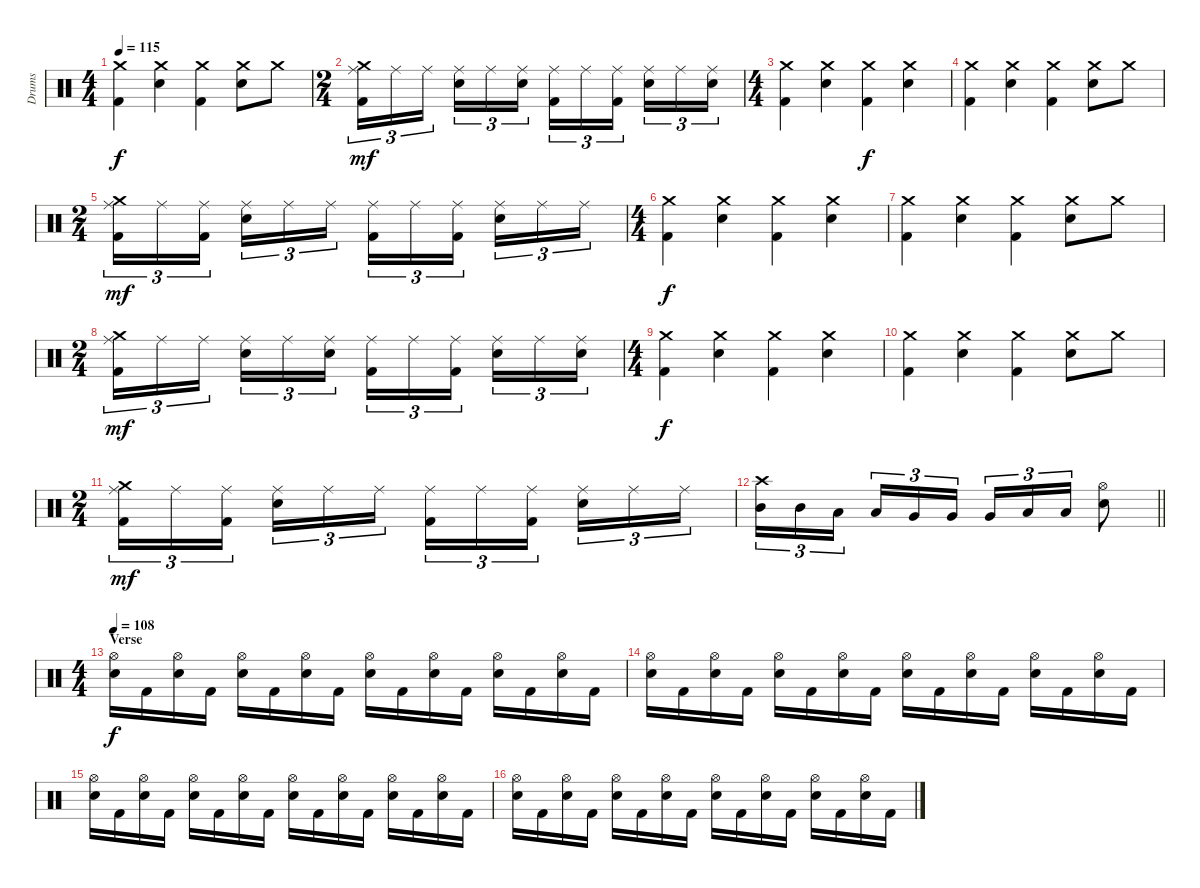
\track ("Drums" "Drums") {instrument percussion}
\staff {score}
\articulation defaults
\ts (4 4)
\tempo 115
\clef neutral
\ks c
("Crash medium (hit)" "Kick (hit) 2").4{dy f} ("Crash medium (hit)" "Electric Snare (hit)").4 ("Crash medium (hit)" "Kick (hit) 2").4 ("Crash medium (hit)" "Electric Snare (hit)").8 "Crash medium (hit)".8 |
\ts (2 4)
("Crash medium (hit)" "Ride (middle)" "Kick (hit) 2").16{tu (3 2) dy mf} "Ride (middle)".16{tu (3 2)} "Ride (middle)".16{tu (3 2) beam splitsecondary} ("Ride (middle)" "Electric Snare (hit)").16{tu (3 2)} "Ride (middle)".16{tu (3 2)} ("Ride (middle)" "Electric Snare (hit)").16{tu (3 2)} ("Ride (middle)" "Kick (hit) 2").16{tu (3 2)} "Ride (middle)".16{tu (3 2)} ("Ride (middle)" "Kick (hit) 2").16{tu (3 2) beam splitsecondary} ("Ride (middle)" "Electric Snare (hit)").16{tu (3 2)} "Ride (middle)".16{tu (3 2)} ("Ride (middle)" "Electric Snare (hit)").16{tu (3 2)} |
\ts (4 4)
("Crash medium (hit)" "Kick (hit) 2").4 ("Crash medium (hit)" "Electric Snare (hit)").4 ("Crash medium (hit)" "Kick (hit) 2").4{dy f} ("Crash medium (hit)" "Electric Snare (hit)").4 |
("Crash medium (hit)" "Kick (hit) 2").4 ("Crash medium (hit)" "Electric Snare (hit)").4 ("Crash medium (hit)" "Kick (hit) 2").4 ("Crash medium (hit)" "Electric Snare (hit)").8 "Crash medium (hit)".8 |
\ts (2 4)
("Crash medium (hit)" "Ride (middle)" "Kick (hit) 2").16{tu (3 2) dy mf} "Ride (middle)".16{tu (3 2)} ("Ride (middle)" "Kick (hit) 2").16{tu (3 2) beam splitsecondary} ("Ride (middle)" "Electric Snare (hit)").16{tu (3 2)} "Ride (middle)".16{tu (3 2)} "Ride (middle)".16{tu (3 2)} ("Ride (middle)" "Kick (hit) 2").16{tu (3 2)} "Ride (middle)".16{tu (3 2)} ("Ride (middle)" "Kick (hit) 2").16{tu (3 2) beam splitsecondary} ("Ride (middle)" "Electric Snare (hit)").16{tu (3 2)} "Ride (middle)".16{tu (3 2)} "Ride (middle)".16{tu (3 2)} |
\ts (4 4)
("Crash medium (hit)" "Kick (hit) 2").4{dy f} ("Crash medium (hit)" "Electric Snare (hit)").4 ("Crash medium (hit)" "Kick (hit) 2").4 ("Crash medium (hit)" "Electric Snare (hit)").4 |
("Crash medium (hit)" "Kick (hit) 2").4 ("Crash medium (hit)" "Electric Snare (hit)").4 ("Crash medium (hit)" "Kick (hit) 2").4 ("Crash medium (hit)" "Electric Snare (hit)").8 "Crash medium (hit)".8 |
\ts (2 4)
("Crash medium (hit)" "Ride (middle)" "Kick (hit) 2").16{tu (3 2) dy mf} "Ride (middle)".16{tu (3 2)} "Ride (middle)".16{tu (3 2) beam splitsecondary} ("Ride (middle)" "Electric Snare (hit)").16{tu (3 2)} "Ride (middle)".16{tu (3 2)} ("Ride (middle)" "Electric Snare (hit)").16{tu (3 2)} ("Ride (middle)" "Kick (hit) 2").16{tu (3 2)} "Ride (middle)".16{tu (3 2)} ("Ride (middle)" "Kick (hit) 2").16{tu (3 2) beam splitsecondary} ("Ride (middle)" "Electric Snare (hit)").16{tu (3 2)} "Ride (middle)".16{tu (3 2)} ("Ride (middle)" "Electric Snare (hit)").16{tu (3 2)} |
\ts (4 4)
("Crash medium (hit)" "Kick (hit) 2").4{dy f} ("Crash medium (hit)" "Electric Snare (hit)").4 ("Crash medium (hit)" "Kick (hit) 2").4 ("Crash medium (hit)" "Electric Snare (hit)").4 |
("Crash medium (hit)" "Kick (hit) 2").4 ("Crash medium (hit)" "Electric Snare (hit)").4 ("Crash medium (hit)" "Kick (hit) 2").4 ("Crash medium (hit)" "Electric Snare (hit)").8 "Crash medium (hit)".8 |
\ts (2 4)
("Crash medium (hit)" "Ride (middle)" "Kick (hit) 2").16{tu (3 2) dy mf} "Ride (middle)".16{tu (3 2)} ("Ride (middle)" "Kick (hit) 2").16{tu (3 2) beam splitsecondary} ("Ride (middle)" "Electric Snare (hit)").16{tu (3 2)} "Ride (middle)".16{tu (3 2)} "Ride (middle)".16{tu (3 2)} ("Ride (middle)" "Kick (hit) 2").16{tu (3 2)} "Ride (middle)".16{tu (3 2)} ("Ride (middle)" "Kick (hit) 2").16{tu (3 2) beam splitsecondary} ("Ride (middle)" "Electric Snare (hit)").16{tu (3 2)} "Ride (middle)".16{tu (3 2)} "Ride (middle)".16{tu (3 2)} |
\barLineRight lightlight
("Crash high (hit)" "Mid Tom (hit)").16{tu (3 2)} "Mid Tom (hit)".16{tu (3 2)} "Low Tom (hit)".16{tu (3 2) beam splitsecondary} "Low Tom (hit)".16{tu (3 2)} "Very Low Tom (hit)".16{tu (3 2)} "Very Low Tom (hit)".16{tu (3 2)} "Very Low Tom (hit)".16{tu (3 2)} "Low Floor Tom (hit)".16{tu (3 2)} "Low Floor Tom (hit)".16{tu (3 2)} ("Hi-Hat (open)" "Electric Snare (hit)").8 |
\ts (4 4)
\section ("" "Verse")
\tempo 108
("Hi-Hat (open)" "Electric Snare (hit)").16{dy f} "Kick (hit) 2".16 ("Hi-Hat (open)" "Electric Snare (hit)").16 "Kick (hit) 2".16 ("Hi-Hat (open)" "Electric Snare (hit)").16 "Kick (hit) 2".16 ("Hi-Hat (open)" "Electric Snare (hit)").16 "Kick (hit) 2".16 ("Hi-Hat (open)" "Electric Snare (hit)").16 "Kick (hit) 2".16 ("Hi-Hat (open)" "Electric Snare (hit)").16 "Kick (hit) 2".16 ("Hi-Hat (open)" "Electric Snare (hit)").16 "Kick (hit) 2".16 ("Hi-Hat (open)" "Electric Snare (hit)").16 "Kick (hit) 2".16 |
("Hi-Hat (open)" "Electric Snare (hit)").16 "Kick (hit) 2".16 ("Hi-Hat (open)" "Electric Snare (hit)").16 "Kick (hit) 2".16 ("Hi-Hat (open)" "Electric Snare (hit)").16 "Kick (hit) 2".16 ("Hi-Hat (open)" "Electric Snare (hit)").16 "Kick (hit) 2".16 ("Hi-Hat (open)" "Electric Snare (hit)").16 "Kick (hit) 2".16 ("Hi-Hat (open)" "Electric Snare (hit)").16 "Kick (hit) 2".16 ("Hi-Hat (open)" "Electric Snare (hit)").16 "Kick (hit) 2".16 ("Hi-Hat (open)" "Electric Snare (hit)").16 "Kick (hit) 2".16 |
("Hi-Hat (open)" "Electric Snare (hit)").16 "Kick (hit) 2".16 ("Hi-Hat (open)" "Electric Snare (hit)").16 "Kick (hit) 2".16 ("Hi-Hat (open)" "Electric Snare (hit)").16 "Kick (hit) 2".16 ("Hi-Hat (open)" "Electric Snare (hit)").16 "Kick (hit) 2".16 ("Hi-Hat (open)" "Electric Snare (hit)").16 "Kick (hit) 2".16 ("Hi-Hat (open)" "Electric Snare (hit)").16 "Kick (hit) 2".16 ("Hi-Hat (open)" "Electric Snare (hit)").16 "Kick (hit) 2".16 ("Hi-Hat (open)" "Electric Snare (hit)").16 "Kick (hit) 2".16 |
("Hi-Hat (open)" "Electric Snare (hit)").16 "Kick (hit) 2".16 ("Hi-Hat (open)" "Electric Snare (hit)").16 "Kick (hit) 2".16 ("Hi-Hat (open)" "Electric Snare (hit)").16 "Kick (hit) 2".16 ("Hi-Hat (open)" "Electric Snare (hit)").16 "Kick (hit) 2".16 ("Hi-Hat (open)" "Electric Snare (hit)").16 "Kick (hit) 2".16 ("Hi-Hat (open)" "Electric Snare (hit)").16 "Kick (hit) 2".16 ("Hi-Hat (open)" "Electric Snare (hit)").16 "Kick (hit) 2".16 ("Hi-Hat (open)" "Electric Snare (hit)").16 "Kick (hit) 2".16
